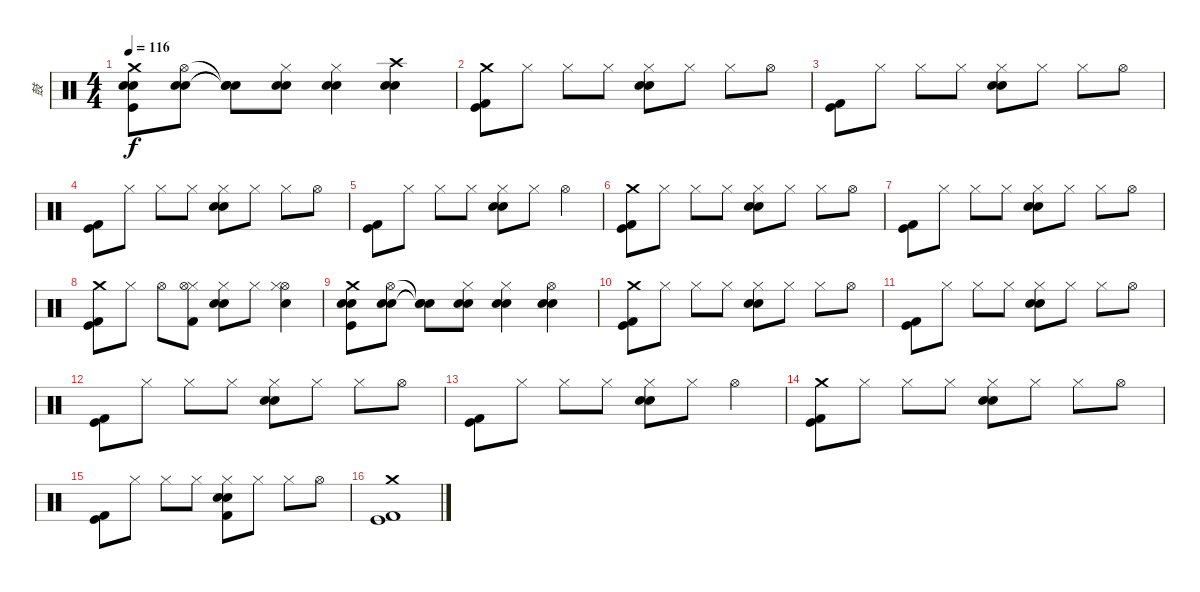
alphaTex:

\track ("鼓" "鼓") {instrument percussion}
\staff {score}
\articulation defaults
\ts (4 4)
\tempo 116
\clef neutral
\ks c
("Crash medium (hit)" "Kick (hit)" "Electric Snare (hit)" "Snare (hit) 2").8{dy f} ("Hi-Hat (open)" "Electric Snare (hit)" "Snare (hit) 2").8 ("Snare (hit)"{t} "Snare (hit)"{t} "Snare (hit)"{t}).8 ("Electric Snare (hit)" "Snare (hit) 2" "Hi-Hat (closed)").8 ("Electric Snare (hit)" "Snare (hit) 2" "Hi-Hat (closed)").4 ("Electric Snare (hit)" "Snare (hit) 2" "Crash high (hit)").4 |
("Kick (hit) 2" "Kick (hit)" "Crash medium (hit)").8 "Hi-Hat (closed)".8 "Hi-Hat (closed)".8 "Hi-Hat (closed)".8 ("Electric Snare (hit)" "Snare (hit) 2" "Hi-Hat (closed)").8 "Hi-Hat (closed)".8 "Hi-Hat (closed)".8 "Hi-Hat (open)".8 |
("Kick (hit) 2" "Kick (hit)").8 "Hi-Hat (closed)".8 "Hi-Hat (closed)".8 "Hi-Hat (closed)".8 ("Electric Snare (hit)" "Snare (hit) 2" "Hi-Hat (closed)").8 "Hi-Hat (closed)".8 "Hi-Hat (closed)".8 "Hi-Hat (open)".8 |
("Kick (hit) 2" "Kick (hit)").8 "Hi-Hat (closed)".8 "Hi-Hat (closed)".8 "Hi-Hat (closed)".8 ("Electric Snare (hit)" "Snare (hit) 2" "Hi-Hat (closed)").8 "Hi-Hat (closed)".8 "Hi-Hat (closed)".8 "Hi-Hat (open)".8 |
("Kick (hit) 2" "Kick (hit)").8 "Hi-Hat (closed)".8 "Hi-Hat (closed)".8 "Hi-Hat (closed)".8 ("Electric Snare (hit)" "Snare (hit) 2" "Hi-Hat (closed)").8 "Hi-Hat (closed)".8 "Hi-Hat (open)".4 |
("Kick (hit) 2" "Kick (hit)" "Crash medium (hit)").8 "Hi-Hat (closed)".8 "Hi-Hat (closed)".8 "Hi-Hat (closed)".8 ("Electric Snare (hit)" "Snare (hit) 2" "Hi-Hat (closed)").8 "Hi-Hat (closed)".8 "Hi-Hat (closed)".8 "Hi-Hat (open)".8 |
("Kick (hit) 2" "Kick (hit)").8 "Hi-Hat (closed)".8 "Hi-Hat (closed)".8 "Hi-Hat (closed)".8 ("Electric Snare (hit)" "Snare (hit) 2" "Hi-Hat (closed)").8 "Hi-Hat (closed)".8 "Hi-Hat (closed)".8 "Hi-Hat (open)".8 |
("Kick (hit) 2" "Kick (hit)" "Crash medium (hit)").8 "Hi-Hat (closed)".8 "Hi-Hat (open)".8 ("Kick (hit) 2" "Hi-Hat (closed)" "Hi-Hat (open)").8 ("Electric Snare (hit)" "Snare (hit) 2" "Hi-Hat (closed)").8 "Hi-Hat (closed)".8 ("Electric Snare (hit)" "Hi-Hat (open)" "Hi-Hat (closed)").4 |
("Crash medium (hit)" "Kick (hit)" "Electric Snare (hit)" "Snare (hit) 2").8 ("Hi-Hat (open)" "Electric Snare (hit)" "Snare (hit) 2").8 ("Snare (hit)"{t} "Snare (hit)"{t} "Snare (hit)"{t}).8 ("Electric Snare (hit)" "Snare (hit) 2" "Hi-Hat (closed)").8 ("Electric Snare (hit)" "Snare (hit) 2" "Hi-Hat (closed)").4 ("Electric Snare (hit)" "Snare (hit) 2" "Hi-Hat (open)").4 |
("Kick (hit) 2" "Kick (hit)" "Crash medium (hit)").8 "Hi-Hat (closed)".8 "Hi-Hat (closed)".8 "Hi-Hat (closed)".8 ("Electric Snare (hit)" "Snare (hit) 2" "Hi-Hat (closed)").8 "Hi-Hat (closed)".8 "Hi-Hat (closed)".8 "Hi-Hat (open)".8 |
("Kick (hit) 2" "Kick (hit)").8 "Hi-Hat (closed)".8 "Hi-Hat (closed)".8 "Hi-Hat (closed)".8 ("Electric Snare (hit)" "Snare (hit) 2" "Hi-Hat (closed)").8 "Hi-Hat (closed)".8 "Hi-Hat (closed)".8 "Hi-Hat (open)".8 |
("Kick (hit) 2" "Kick (hit)").8 "Hi-Hat (closed)".8 "Hi-Hat (closed)".8 "Hi-Hat (closed)".8 ("Electric Snare (hit)" "Snare (hit) 2" "Hi-Hat (closed)").8 "Hi-Hat (closed)".8 "Hi-Hat (closed)".8 "Hi-Hat (open)".8 |
("Kick (hit) 2" "Kick (hit)").8 "Hi-Hat (closed)".8 "Hi-Hat (closed)".8 "Hi-Hat (closed)".8 ("Electric Snare (hit)" "Snare (hit) 2" "Hi-Hat (closed)").8 "Hi-Hat (closed)".8 "Hi-Hat (open)".4 |
("Kick (hit) 2" "Kick (hit)" "Crash medium (hit)").8 "Hi-Hat (closed)".8 "Hi-Hat (closed)".8 "Hi-Hat (closed)".8 ("Electric Snare (hit)" "Snare (hit) 2" "Hi-Hat (closed)").8 "Hi-Hat (closed)".8 "Hi-Hat (closed)".8 "Hi-Hat (open)".8 |
("Kick (hit) 2" "Kick (hit)").8 "Hi-Hat (closed)".8 "Hi-Hat (closed)".8 "Hi-Hat (closed)".8 ("Electric Snare (hit)" "Snare (hit) 2" "Hi-Hat (closed)" "Kick (hit) 2").8 "Hi-Hat (closed)".8 "Hi-Hat (closed)".8 "Hi-Hat (open)".8 |
("Kick (hit) 2" "Kick (hit)" "Crash medium (hit)").1
